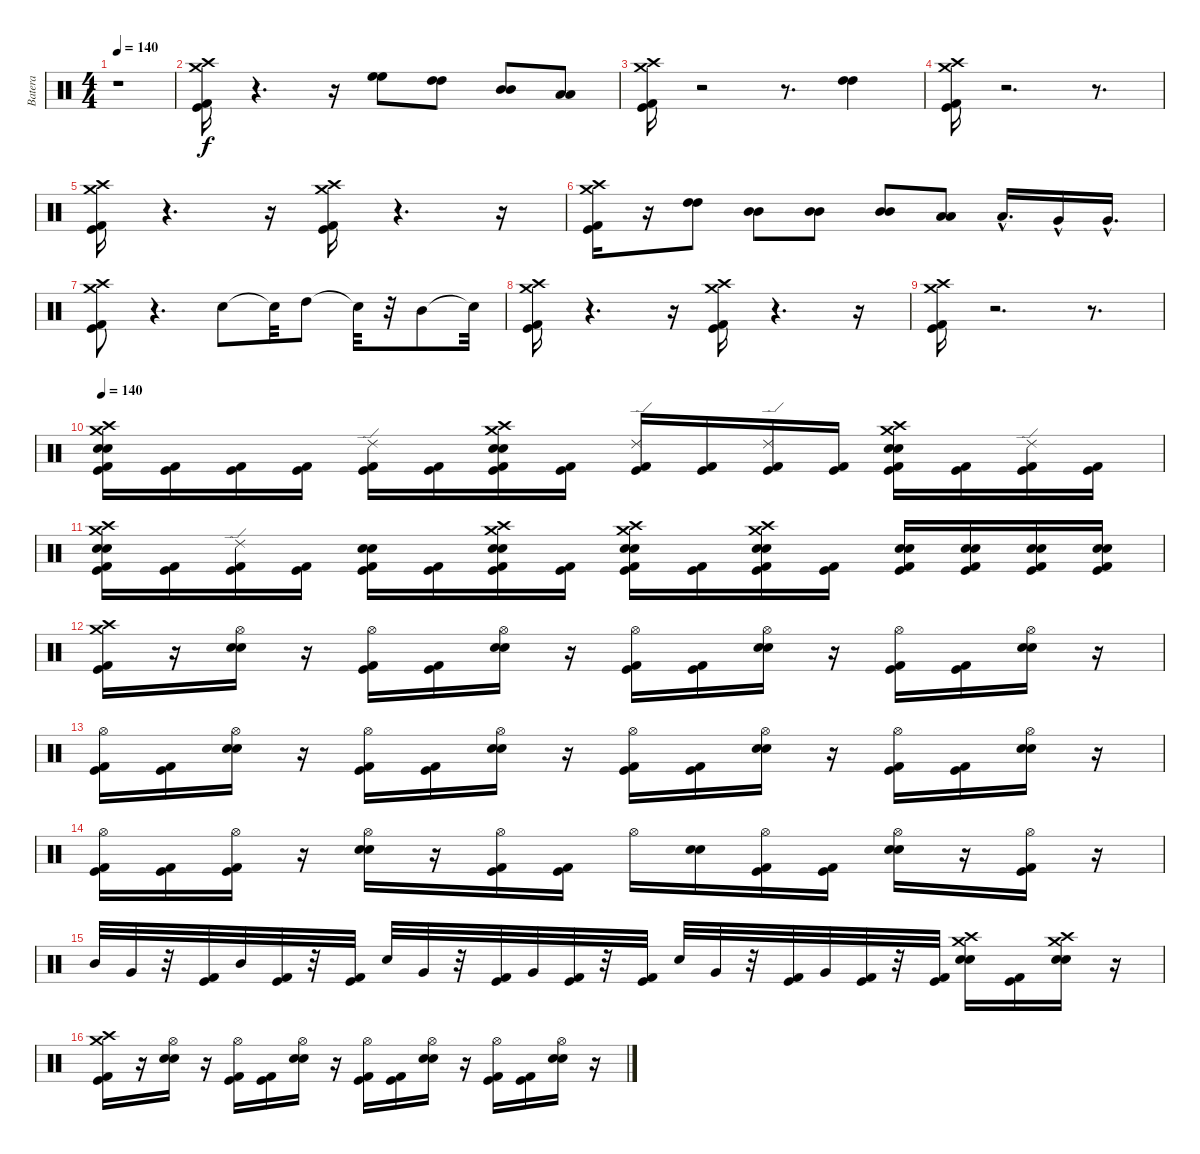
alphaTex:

\track ("Batera" "Batera") {instrument percussion}
\staff {score}
\articulation defaults
\ts (4 4)
\tempo 140
\tempo 100
\tempo 140
\clef neutral
\ks c
r.1{dy f} |
("Crash high (hit)" "Crash medium (hit)" "Kick (hit) 2" "Kick (hit)").16 r.4{d} r.16 ("High Floor Tom (hit)" "High Floor Tom (hit)").8 ("High Tom (hit)" "High Tom (hit)").8 ("Mid Tom (hit)" "Mid Tom (hit)").8 ("Low Tom (hit)" "Low Tom (hit)").8 |
("Crash high (hit)" "Crash medium (hit)" "Kick (hit) 2" "Kick (hit)").16 r.2 r.8{d} ("High Tom (hit)" "High Tom (hit)").4 |
("Crash high (hit)" "Crash medium (hit)" "Kick (hit) 2" "Kick (hit)").16 r.2{d} r.8{d} |
("Crash high (hit)" "Crash medium (hit)" "Kick (hit) 2" "Kick (hit)").16 r.4{d} r.16 ("Crash high (hit)" "Crash medium (hit)" "Kick (hit) 2" "Kick (hit)").16 r.4{d} r.16 |
("Crash medium (hit)" "Crash high (hit)" "Kick (hit) 2" "Kick (hit)").16 r.16 ("High Tom (hit)" "High Tom (hit)").8 ("Mid Tom (hit)" "Mid Tom (hit)").8 ("Mid Tom (hit)" "Mid Tom (hit)").8 ("Mid Tom (hit)" "Mid Tom (hit)").8 ("Low Tom (hit)" "Low Tom (hit)").8 "Low Tom (hit)"{hac}.16{d} "Very Low Tom (hit)"{hac}.16 "Very Low Tom (hit)"{hac}.16{d} |
("Crash high (hit)" "Crash medium (hit)" "Kick (hit)" "Kick (hit) 2").8 r.4{d} "Snare (hit)".8 "Snare (hit)"{t}.32 "High Tom (hit)".8 "Snare (hit)"{t}.32 r.32 "Mid Tom (hit)".8 "Snare (hit)"{t}.32 |
("Crash medium (hit)" "Crash high (hit)" "Kick (hit) 2" "Kick (hit)").16 r.4{d} r.16 ("Crash medium (hit)" "Crash high (hit)" "Kick (hit)" "Kick (hit) 2").16 r.4{d} r.16 |
("Crash medium (hit)" "Crash high (hit)" "Kick (hit) 2" "Kick (hit)").16 r.2{d} r.8{d} |
\tempo 140
("Electric Snare (hit)" "Snare (hit) 2" "Crash high (hit)" "Crash medium (hit)" "Kick (hit) 2" "Kick (hit)").16 ("Kick (hit) 2" "Kick (hit)").16 ("Kick (hit) 2" "Kick (hit)").16 ("Kick (hit) 2" "Kick (hit)").16 ("Ride (edge) 2" "Kick (hit) 2" "Kick (hit)").16 ("Kick (hit) 2" "Kick (hit)").16 ("Crash high (hit)" "Crash medium (hit)" "Electric Snare (hit)" "Snare (hit) 2" "Kick (hit) 2" "Kick (hit)").16 ("Kick (hit) 2" "Kick (hit)").16 ("Ride (edge) 2" "Kick (hit) 2" "Kick (hit)").16 ("Kick (hit) 2" "Kick (hit)").16 ("Ride (edge) 2" "Kick (hit) 2" "Kick (hit)").16 ("Kick (hit) 2" "Kick (hit)").16 ("Crash high (hit)" "Crash medium (hit)" "Electric Snare (hit)" "Snare (hit) 2" "Kick (hit) 2" "Kick (hit)").16 ("Kick (hit) 2" "Kick (hit)").16 ("Ride (edge) 2" "Kick (hit) 2" "Kick (hit)").16 ("Kick (hit) 2" "Kick (hit)").16 |
("Crash high (hit)" "Crash medium (hit)" "Electric Snare (hit)" "Snare (hit) 2" "Kick (hit) 2" "Kick (hit)").16 ("Kick (hit) 2" "Kick (hit)").16 ("Ride (edge) 2" "Kick (hit) 2" "Kick (hit)").16 ("Kick (hit) 2" "Kick (hit)").16 ("Snare (hit) 2" "Electric Snare (hit)" "Kick (hit) 2" "Kick (hit)").16 ("Kick (hit) 2" "Kick (hit)").16 ("Crash high (hit)" "Crash medium (hit)" "Electric Snare (hit)" "Snare (hit) 2" "Kick (hit) 2" "Kick (hit)").16 ("Kick (hit) 2" "Kick (hit)").16 ("Crash high (hit)" "Crash medium (hit)" "Electric Snare (hit)" "Snare (hit) 2" "Kick (hit) 2" "Kick (hit)").16 ("Kick (hit) 2" "Kick (hit)").16 ("Crash high (hit)" "Crash medium (hit)" "Electric Snare (hit)" "Snare (hit) 2" "Kick (hit) 2" "Kick (hit)").16 ("Kick (hit) 2" "Kick (hit)").16 ("Kick (hit) 2" "Kick (hit)" "Electric Snare (hit)" "Snare (hit) 2").16 ("Kick (hit) 2" "Kick (hit)" "Electric Snare (hit)" "Snare (hit) 2").16 ("Kick (hit) 2" "Kick (hit)" "Electric Snare (hit)" "Snare (hit) 2").16 ("Kick (hit) 2" "Kick (hit)" "Electric Snare (hit)" "Snare (hit) 2").16 |
("Crash high (hit)" "Crash medium (hit)" "Kick (hit) 2" "Kick (hit)").16 r.16 ("Electric Snare (hit)" "Snare (hit) 2" "Hi-Hat (open)").16 r.16 ("Hi-Hat (open)" "Kick (hit) 2" "Kick (hit)").16 ("Kick (hit) 2" "Kick (hit)").16 ("Hi-Hat (open)" "Electric Snare (hit)" "Snare (hit) 2").16 r.16 ("Hi-Hat (open)" "Kick (hit)" "Kick (hit) 2").16 ("Kick (hit) 2" "Kick (hit)").16 ("Hi-Hat (open)" "Electric Snare (hit)" "Snare (hit) 2").16 r.16 ("Hi-Hat (open)" "Kick (hit) 2" "Kick (hit)").16 ("Kick (hit) 2" "Kick (hit)").16 ("Hi-Hat (open)" "Electric Snare (hit)" "Snare (hit) 2").16 r.16 |
("Hi-Hat (open)" "Kick (hit)" "Kick (hit) 2").16 ("Kick (hit) 2" "Kick (hit)").16 ("Hi-Hat (open)" "Electric Snare (hit)" "Snare (hit) 2").16 r.16 ("Hi-Hat (open)" "Kick (hit) 2" "Kick (hit)").16 ("Kick (hit) 2" "Kick (hit)").16 ("Hi-Hat (open)" "Electric Snare (hit)" "Snare (hit) 2").16 r.16 ("Hi-Hat (open)" "Kick (hit)" "Kick (hit) 2").16 ("Kick (hit) 2" "Kick (hit)").16 ("Hi-Hat (open)" "Electric Snare (hit)" "Snare (hit) 2").16 r.16 ("Hi-Hat (open)" "Kick (hit) 2" "Kick (hit)").16 ("Kick (hit) 2" "Kick (hit)").16 ("Hi-Hat (open)" "Electric Snare (hit)" "Snare (hit) 2").16 r.16 |
("Hi-Hat (open)" "Kick (hit)" "Kick (hit) 2").16 ("Kick (hit) 2" "Kick (hit)").16 ("Kick (hit) 2" "Kick (hit)" "Hi-Hat (open)").16 r.16 ("Electric Snare (hit)" "Snare (hit) 2" "Hi-Hat (open)").16 r.16 ("Kick (hit) 2" "Kick (hit)" "Hi-Hat (open)").16 ("Kick (hit) 2" "Kick (hit)").16 "Hi-Hat (open)".16 ("Electric Snare (hit)" "Snare (hit) 2").16 ("Kick (hit)" "Kick (hit) 2" "Hi-Hat (open)").16 ("Kick (hit) 2" "Kick (hit)").16 ("Electric Snare (hit)" "Snare (hit) 2" "Hi-Hat (open)").16 r.16 ("Kick (hit)" "Kick (hit) 2" "Hi-Hat (open)").16 r.16 |
"Mid Tom (hit)".32 "Very Low Tom (hit)".32 r.32 ("Kick (hit) 2" "Kick (hit)").32 "Mid Tom (hit)".32 ("Kick (hit) 2" "Kick (hit)").32 r.32 ("Kick (hit) 2" "Kick (hit)").32 "Electric Snare (hit)".32 "Very Low Tom (hit)".32 r.32 ("Kick (hit) 2" "Kick (hit)").32 "Very Low Tom (hit)".32 ("Kick (hit) 2" "Kick (hit)").32 r.32 ("Kick (hit) 2" "Kick (hit)").32 "Electric Snare (hit)".32 "Very Low Tom (hit)".32 r.32 ("Kick (hit)" "Kick (hit) 2").32 "Very Low Tom (hit)".32 ("Kick (hit) 2" "Kick (hit)").32 r.32 ("Kick (hit) 2" "Kick (hit)").32 ("Crash high (hit)" "Crash medium (hit)" "Electric Snare (hit)" "Snare (hit) 2").16 ("Kick (hit) 2" "Kick (hit)").16 ("Crash medium (hit)" "Crash high (hit)" "Electric Snare (hit)" "Snare (hit) 2").16 r.16 |
("Crash high (hit)" "Crash medium (hit)" "Kick (hit)" "Kick (hit) 2").16 r.16 ("Hi-Hat (open)" "Electric Snare (hit)" "Snare (hit) 2").16 r.16 ("Hi-Hat (open)" "Kick (hit) 2" "Kick (hit)").16 ("Kick (hit) 2" "Kick (hit)").16 ("Hi-Hat (open)" "Electric Snare (hit)" "Snare (hit) 2").16 r.16 ("Hi-Hat (open)" "Kick (hit)" "Kick (hit) 2").16 ("Kick (hit) 2" "Kick (hit)").16 ("Hi-Hat (open)" "Electric Snare (hit)" "Snare (hit) 2").16 r.16 ("Hi-Hat (open)" "Kick (hit) 2" "Kick (hit)").16 ("Kick (hit) 2" "Kick (hit)").16 ("Hi-Hat (open)" "Electric Snare (hit)" "Snare (hit) 2").16 r.16
